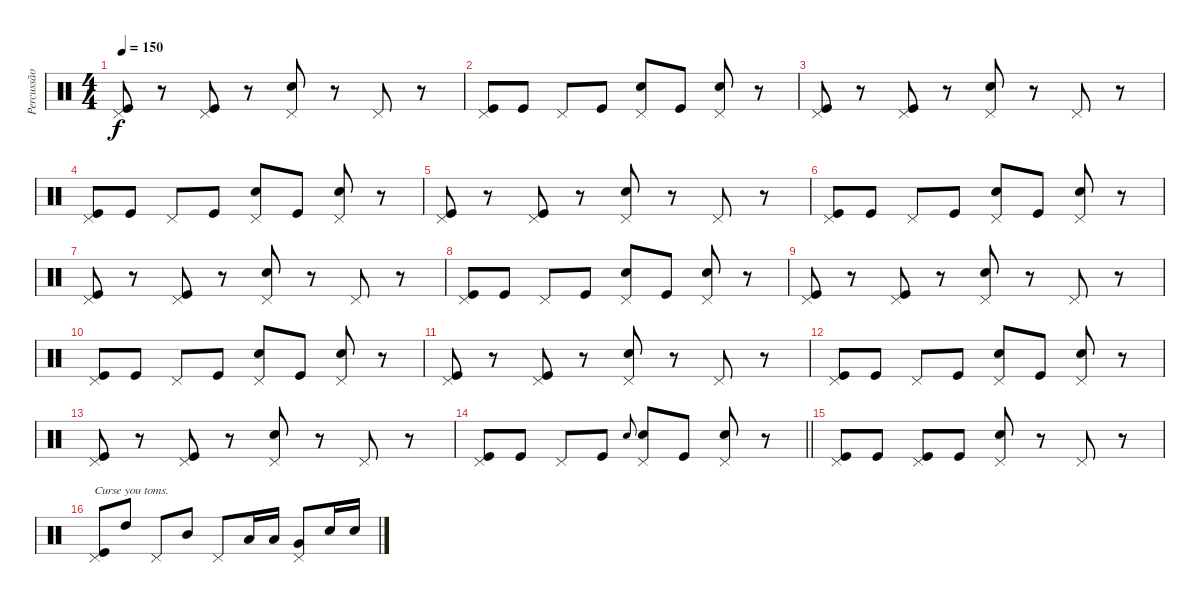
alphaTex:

\track ("Percussão" "Percussão") {instrument percussion}
\staff {score}
\articulation defaults
\ts (4 4)
\tempo 150
\clef neutral
\ks c
("Pedal Hi-Hat (hit)" "Kick (hit)").8{dy f} r.8 ("Pedal Hi-Hat (hit)" "Kick (hit)").8 r.8 ("Pedal Hi-Hat (hit)" "Snare (hit) 2").8 r.8 "Pedal Hi-Hat (hit)".8 r.8 |
("Pedal Hi-Hat (hit)" "Kick (hit)").8 "Kick (hit)".8 "Pedal Hi-Hat (hit)".8 "Kick (hit)".8 ("Pedal Hi-Hat (hit)" "Snare (hit) 2").8 "Kick (hit)".8 ("Pedal Hi-Hat (hit)" "Snare (hit) 2").8 r.8 |
("Pedal Hi-Hat (hit)" "Kick (hit)").8 r.8 ("Pedal Hi-Hat (hit)" "Kick (hit)").8 r.8 ("Pedal Hi-Hat (hit)" "Snare (hit) 2").8 r.8 "Pedal Hi-Hat (hit)".8 r.8 |
("Pedal Hi-Hat (hit)" "Kick (hit)").8 "Kick (hit)".8 "Pedal Hi-Hat (hit)".8 "Kick (hit)".8 ("Pedal Hi-Hat (hit)" "Snare (hit) 2").8 "Kick (hit)".8 ("Pedal Hi-Hat (hit)" "Snare (hit) 2").8 r.8 |
("Pedal Hi-Hat (hit)" "Kick (hit)").8 r.8 ("Pedal Hi-Hat (hit)" "Kick (hit)").8 r.8 ("Pedal Hi-Hat (hit)" "Snare (hit) 2").8 r.8 "Pedal Hi-Hat (hit)".8 r.8 |
("Pedal Hi-Hat (hit)" "Kick (hit)").8 "Kick (hit)".8 "Pedal Hi-Hat (hit)".8 "Kick (hit)".8 ("Pedal Hi-Hat (hit)" "Snare (hit) 2").8 "Kick (hit)".8 ("Pedal Hi-Hat (hit)" "Snare (hit) 2").8 r.8 |
("Pedal Hi-Hat (hit)" "Kick (hit)").8 r.8 ("Pedal Hi-Hat (hit)" "Kick (hit)").8 r.8 ("Pedal Hi-Hat (hit)" "Snare (hit) 2").8 r.8 "Pedal Hi-Hat (hit)".8 r.8 |
("Pedal Hi-Hat (hit)" "Kick (hit)").8 "Kick (hit)".8 "Pedal Hi-Hat (hit)".8 "Kick (hit)".8 ("Pedal Hi-Hat (hit)" "Snare (hit) 2").8 "Kick (hit)".8 ("Pedal Hi-Hat (hit)" "Snare (hit) 2").8 r.8 |
("Pedal Hi-Hat (hit)" "Kick (hit)").8 r.8 ("Pedal Hi-Hat (hit)" "Kick (hit)").8 r.8 ("Pedal Hi-Hat (hit)" "Snare (hit) 2").8 r.8 "Pedal Hi-Hat (hit)".8 r.8 |
("Pedal Hi-Hat (hit)" "Kick (hit)").8 "Kick (hit)".8 "Pedal Hi-Hat (hit)".8 "Kick (hit)".8 ("Pedal Hi-Hat (hit)" "Snare (hit) 2").8 "Kick (hit)".8 ("Pedal Hi-Hat (hit)" "Snare (hit) 2").8 r.8 |
("Pedal Hi-Hat (hit)" "Kick (hit)").8 r.8 ("Pedal Hi-Hat (hit)" "Kick (hit)").8 r.8 ("Pedal Hi-Hat (hit)" "Snare (hit) 2").8 r.8 "Pedal Hi-Hat (hit)".8 r.8 |
("Pedal Hi-Hat (hit)" "Kick (hit)").8 "Kick (hit)".8 "Pedal Hi-Hat (hit)".8 "Kick (hit)".8 ("Pedal Hi-Hat (hit)" "Snare (hit) 2").8 "Kick (hit)".8 ("Pedal Hi-Hat (hit)" "Snare (hit) 2").8 r.8 |
("Pedal Hi-Hat (hit)" "Kick (hit)").8 r.8 ("Pedal Hi-Hat (hit)" "Kick (hit)").8 r.8 ("Pedal Hi-Hat (hit)" "Snare (hit) 2").8 r.8 "Pedal Hi-Hat (hit)".8 r.8 |
\barLineRight lightlight
("Pedal Hi-Hat (hit)" "Kick (hit)").8 "Kick (hit)".8 "Pedal Hi-Hat (hit)".8 "Kick (hit)".8 "Snare (hit) 2".8{gr onbeat} ("Pedal Hi-Hat (hit)" "Snare (hit) 2").8 "Kick (hit)".8 ("Pedal Hi-Hat (hit)" "Snare (hit) 2").8 r.8 |
("Pedal Hi-Hat (hit)" "Kick (hit)").8 "Kick (hit)".8 ("Pedal Hi-Hat (hit)" "Kick (hit)").8 "Kick (hit)".8 ("Pedal Hi-Hat (hit)" "Snare (hit) 2").8 r.8 "Pedal Hi-Hat (hit)".8 r.8 |
("Pedal Hi-Hat (hit)" "Kick (hit)").8{txt "Curse you toms."} "High Tom (hit)".8 "Pedal Hi-Hat (hit)".8 "Mid Tom (hit)".8 "Pedal Hi-Hat (hit)".8 "Low Tom (hit)".16 "Low Tom (hit)".16 ("Pedal Hi-Hat (hit)" "Very Low Tom (hit)").8 "Snare (hit) 2".16 "Snare (hit) 2".16
